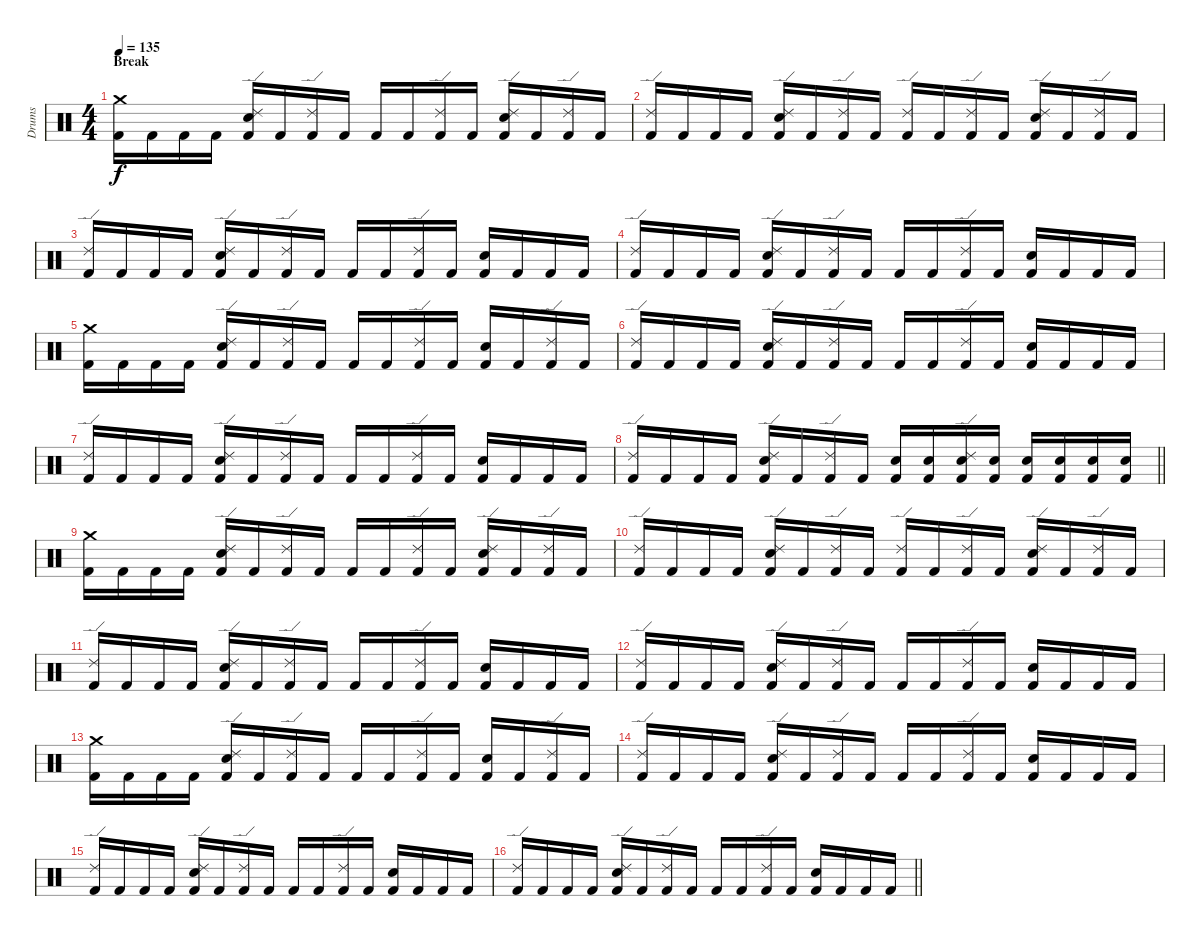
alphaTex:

\track ("Drums" "Drums") {instrument percussion}
\staff {score}
\articulation defaults
\ts (4 4)
\section ("" "Break")
\tempo 135
\clef neutral
\ks c
("Kick (hit) 2" "Crash medium (hit)").16{dy f} "Kick (hit) 2".16 "Kick (hit) 2".16 "Kick (hit) 2".16 ("Kick (hit) 2" "Snare (hit) 2" "Ride (edge) 2").16 "Kick (hit) 2".16 ("Kick (hit) 2" "Ride (edge) 2").16 "Kick (hit) 2".16 "Kick (hit) 2".16 "Kick (hit) 2".16 ("Kick (hit) 2" "Ride (edge) 2").16 "Kick (hit) 2".16 ("Kick (hit) 2" "Snare (hit) 2" "Ride (edge) 2").16 "Kick (hit) 2".16 ("Kick (hit) 2" "Ride (edge) 2").16 "Kick (hit) 2".16 |
("Kick (hit) 2" "Ride (edge) 2").16 "Kick (hit) 2".16 "Kick (hit) 2".16 "Kick (hit) 2".16 ("Kick (hit) 2" "Snare (hit) 2" "Ride (edge) 2").16 "Kick (hit) 2".16 ("Kick (hit) 2" "Ride (edge) 2").16 "Kick (hit) 2".16 ("Kick (hit) 2" "Ride (edge) 2").16 "Kick (hit) 2".16 ("Kick (hit) 2" "Ride (edge) 2").16 "Kick (hit) 2".16 ("Kick (hit) 2" "Snare (hit) 2" "Ride (edge) 2").16 "Kick (hit) 2".16 ("Kick (hit) 2" "Ride (edge) 2").16 "Kick (hit) 2".16 |
("Kick (hit) 2" "Ride (edge) 2").16 "Kick (hit) 2".16 "Kick (hit) 2".16 "Kick (hit) 2".16 ("Kick (hit) 2" "Snare (hit) 2" "Ride (edge) 2").16 "Kick (hit) 2".16 ("Kick (hit) 2" "Ride (edge) 2").16 "Kick (hit) 2".16 "Kick (hit) 2".16 "Kick (hit) 2".16 ("Kick (hit) 2" "Ride (edge) 2").16 "Kick (hit) 2".16 ("Kick (hit) 2" "Snare (hit) 2").16 "Kick (hit) 2".16 "Kick (hit) 2".16 "Kick (hit) 2".16 |
("Kick (hit) 2" "Ride (edge) 2").16 "Kick (hit) 2".16 "Kick (hit) 2".16 "Kick (hit) 2".16 ("Kick (hit) 2" "Snare (hit) 2" "Ride (edge) 2").16 "Kick (hit) 2".16 ("Kick (hit) 2" "Ride (edge) 2").16 "Kick (hit) 2".16 "Kick (hit) 2".16 "Kick (hit) 2".16 ("Kick (hit) 2" "Ride (edge) 2").16 "Kick (hit) 2".16 ("Kick (hit) 2" "Snare (hit) 2").16 "Kick (hit) 2".16 "Kick (hit) 2".16 "Kick (hit) 2".16 |
("Kick (hit) 2" "Crash medium (hit)").16 "Kick (hit) 2".16 "Kick (hit) 2".16 "Kick (hit) 2".16 ("Kick (hit) 2" "Snare (hit) 2" "Ride (edge) 2").16 "Kick (hit) 2".16 ("Kick (hit) 2" "Ride (edge) 2").16 "Kick (hit) 2".16 "Kick (hit) 2".16 "Kick (hit) 2".16 ("Kick (hit) 2" "Ride (edge) 2").16 "Kick (hit) 2".16 ("Kick (hit) 2" "Snare (hit) 2").16 "Kick (hit) 2".16 ("Kick (hit) 2" "Ride (edge) 2").16 "Kick (hit) 2".16 |
("Kick (hit) 2" "Ride (edge) 2").16 "Kick (hit) 2".16 "Kick (hit) 2".16 "Kick (hit) 2".16 ("Kick (hit) 2" "Snare (hit) 2" "Ride (edge) 2").16 "Kick (hit) 2".16 ("Kick (hit) 2" "Ride (edge) 2").16 "Kick (hit) 2".16 "Kick (hit) 2".16 "Kick (hit) 2".16 ("Kick (hit) 2" "Ride (edge) 2").16 "Kick (hit) 2".16 ("Kick (hit) 2" "Snare (hit) 2").16 "Kick (hit) 2".16 "Kick (hit) 2".16 "Kick (hit) 2".16 |
("Kick (hit) 2" "Ride (edge) 2").16 "Kick (hit) 2".16 "Kick (hit) 2".16 "Kick (hit) 2".16 ("Kick (hit) 2" "Snare (hit) 2" "Ride (edge) 2").16 "Kick (hit) 2".16 ("Kick (hit) 2" "Ride (edge) 2").16 "Kick (hit) 2".16 "Kick (hit) 2".16 "Kick (hit) 2".16 ("Kick (hit) 2" "Ride (edge) 2").16 "Kick (hit) 2".16 ("Kick (hit) 2" "Snare (hit) 2").16 "Kick (hit) 2".16 "Kick (hit) 2".16 "Kick (hit) 2".16 |
\barLineRight lightlight
("Kick (hit) 2" "Ride (edge) 2").16 "Kick (hit) 2".16 "Kick (hit) 2".16 "Kick (hit) 2".16 ("Kick (hit) 2" "Snare (hit) 2" "Ride (edge) 2").16 "Kick (hit) 2".16 ("Kick (hit) 2" "Ride (edge) 2").16 "Kick (hit) 2".16 ("Kick (hit) 2" "Snare (hit) 2").16 ("Kick (hit) 2" "Snare (hit) 2").16 ("Kick (hit) 2" "Snare (hit) 2" "Ride (edge) 2").16 ("Kick (hit) 2" "Snare (hit) 2").16 ("Kick (hit) 2" "Snare (hit) 2").16 ("Kick (hit) 2" "Snare (hit) 2").16 ("Kick (hit) 2" "Snare (hit) 2").16 ("Kick (hit) 2" "Snare (hit) 2").16 |
\section ("" "")
("Kick (hit) 2" "Crash medium (hit)").16 "Kick (hit) 2".16 "Kick (hit) 2".16 "Kick (hit) 2".16 ("Kick (hit) 2" "Snare (hit) 2" "Ride (edge) 2").16 "Kick (hit) 2".16 ("Kick (hit) 2" "Ride (edge) 2").16 "Kick (hit) 2".16 "Kick (hit) 2".16 "Kick (hit) 2".16 ("Kick (hit) 2" "Ride (edge) 2").16 "Kick (hit) 2".16 ("Kick (hit) 2" "Snare (hit) 2" "Ride (edge) 2").16 "Kick (hit) 2".16 ("Kick (hit) 2" "Ride (edge) 2").16 "Kick (hit) 2".16 |
("Kick (hit) 2" "Ride (edge) 2").16 "Kick (hit) 2".16 "Kick (hit) 2".16 "Kick (hit) 2".16 ("Kick (hit) 2" "Snare (hit) 2" "Ride (edge) 2").16 "Kick (hit) 2".16 ("Kick (hit) 2" "Ride (edge) 2").16 "Kick (hit) 2".16 ("Kick (hit) 2" "Ride (edge) 2").16 "Kick (hit) 2".16 ("Kick (hit) 2" "Ride (edge) 2").16 "Kick (hit) 2".16 ("Kick (hit) 2" "Snare (hit) 2" "Ride (edge) 2").16 "Kick (hit) 2".16 ("Kick (hit) 2" "Ride (edge) 2").16 "Kick (hit) 2".16 |
("Kick (hit) 2" "Ride (edge) 2").16 "Kick (hit) 2".16 "Kick (hit) 2".16 "Kick (hit) 2".16 ("Kick (hit) 2" "Snare (hit) 2" "Ride (edge) 2").16 "Kick (hit) 2".16 ("Kick (hit) 2" "Ride (edge) 2").16 "Kick (hit) 2".16 "Kick (hit) 2".16 "Kick (hit) 2".16 ("Kick (hit) 2" "Ride (edge) 2").16 "Kick (hit) 2".16 ("Kick (hit) 2" "Snare (hit) 2").16 "Kick (hit) 2".16 "Kick (hit) 2".16 "Kick (hit) 2".16 |
("Kick (hit) 2" "Ride (edge) 2").16 "Kick (hit) 2".16 "Kick (hit) 2".16 "Kick (hit) 2".16 ("Kick (hit) 2" "Snare (hit) 2" "Ride (edge) 2").16 "Kick (hit) 2".16 ("Kick (hit) 2" "Ride (edge) 2").16 "Kick (hit) 2".16 "Kick (hit) 2".16 "Kick (hit) 2".16 ("Kick (hit) 2" "Ride (edge) 2").16 "Kick (hit) 2".16 ("Kick (hit) 2" "Snare (hit) 2").16 "Kick (hit) 2".16 "Kick (hit) 2".16 "Kick (hit) 2".16 |
("Kick (hit) 2" "Crash medium (hit)").16 "Kick (hit) 2".16 "Kick (hit) 2".16 "Kick (hit) 2".16 ("Kick (hit) 2" "Snare (hit) 2" "Ride (edge) 2").16 "Kick (hit) 2".16 ("Kick (hit) 2" "Ride (edge) 2").16 "Kick (hit) 2".16 "Kick (hit) 2".16 "Kick (hit) 2".16 ("Kick (hit) 2" "Ride (edge) 2").16 "Kick (hit) 2".16 ("Kick (hit) 2" "Snare (hit) 2").16 "Kick (hit) 2".16 ("Kick (hit) 2" "Ride (edge) 2").16 "Kick (hit) 2".16 |
("Kick (hit) 2" "Ride (edge) 2").16 "Kick (hit) 2".16 "Kick (hit) 2".16 "Kick (hit) 2".16 ("Kick (hit) 2" "Snare (hit) 2" "Ride (edge) 2").16 "Kick (hit) 2".16 ("Kick (hit) 2" "Ride (edge) 2").16 "Kick (hit) 2".16 "Kick (hit) 2".16 "Kick (hit) 2".16 ("Kick (hit) 2" "Ride (edge) 2").16 "Kick (hit) 2".16 ("Kick (hit) 2" "Snare (hit) 2").16 "Kick (hit) 2".16 "Kick (hit) 2".16 "Kick (hit) 2".16 |
("Kick (hit) 2" "Ride (edge) 2").16 "Kick (hit) 2".16 "Kick (hit) 2".16 "Kick (hit) 2".16 ("Kick (hit) 2" "Snare (hit) 2" "Ride (edge) 2").16 "Kick (hit) 2".16 ("Kick (hit) 2" "Ride (edge) 2").16 "Kick (hit) 2".16 "Kick (hit) 2".16 "Kick (hit) 2".16 ("Kick (hit) 2" "Ride (edge) 2").16 "Kick (hit) 2".16 ("Kick (hit) 2" "Snare (hit) 2").16 "Kick (hit) 2".16 "Kick (hit) 2".16 "Kick (hit) 2".16 |
\barLineRight lightlight
("Kick (hit) 2" "Ride (edge) 2").16 "Kick (hit) 2".16 "Kick (hit) 2".16 "Kick (hit) 2".16 ("Kick (hit) 2" "Snare (hit) 2" "Ride (edge) 2").16 "Kick (hit) 2".16 ("Kick (hit) 2" "Ride (edge) 2").16 "Kick (hit) 2".16 "Kick (hit) 2".16 "Kick (hit) 2".16 ("Kick (hit) 2" "Ride (edge) 2").16 "Kick (hit) 2".16 ("Kick (hit) 2" "Snare (hit) 2").16 "Kick (hit) 2".16 "Kick (hit) 2".16 "Kick (hit) 2".16
